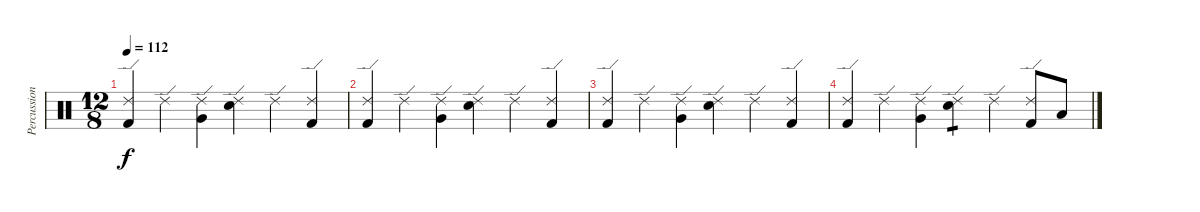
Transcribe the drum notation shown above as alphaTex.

\track ("Percussion" "Percussion") {instrument percussion}
\staff {score}
\articulation defaults
\ts (12 8)
\tempo 112
\clef neutral
\ks c
("Ride (edge) 2" "Kick (hit) 2").4{dy f} "Ride (edge) 2".4 ("Ride (edge) 2" "Very Low Tom (hit)").4 ("Ride (edge) 2" "Electric Snare (hit)").4 "Ride (edge) 2".4 ("Ride (edge) 2" "Kick (hit) 2").4 |
("Ride (edge) 2" "Kick (hit) 2").4 "Ride (edge) 2".4 ("Ride (edge) 2" "Very Low Tom (hit)").4 ("Ride (edge) 2" "Electric Snare (hit)").4 "Ride (edge) 2".4 ("Ride (edge) 2" "Kick (hit) 2").4 |
("Ride (edge) 2" "Kick (hit) 2").4 "Ride (edge) 2".4 ("Ride (edge) 2" "Very Low Tom (hit)").4 ("Ride (edge) 2" "Electric Snare (hit)").4 "Ride (edge) 2".4 ("Ride (edge) 2" "Kick (hit) 2").4 |
("Ride (edge) 2" "Kick (hit) 2").4 "Ride (edge) 2".4 ("Ride (edge) 2" "Very Low Tom (hit)").4 ("Ride (edge) 2" "Electric Snare (hit)").4{tp 1} "Ride (edge) 2".4 ("Ride (edge) 2" "Kick (hit) 2").8 "Low Tom (hit)".8
